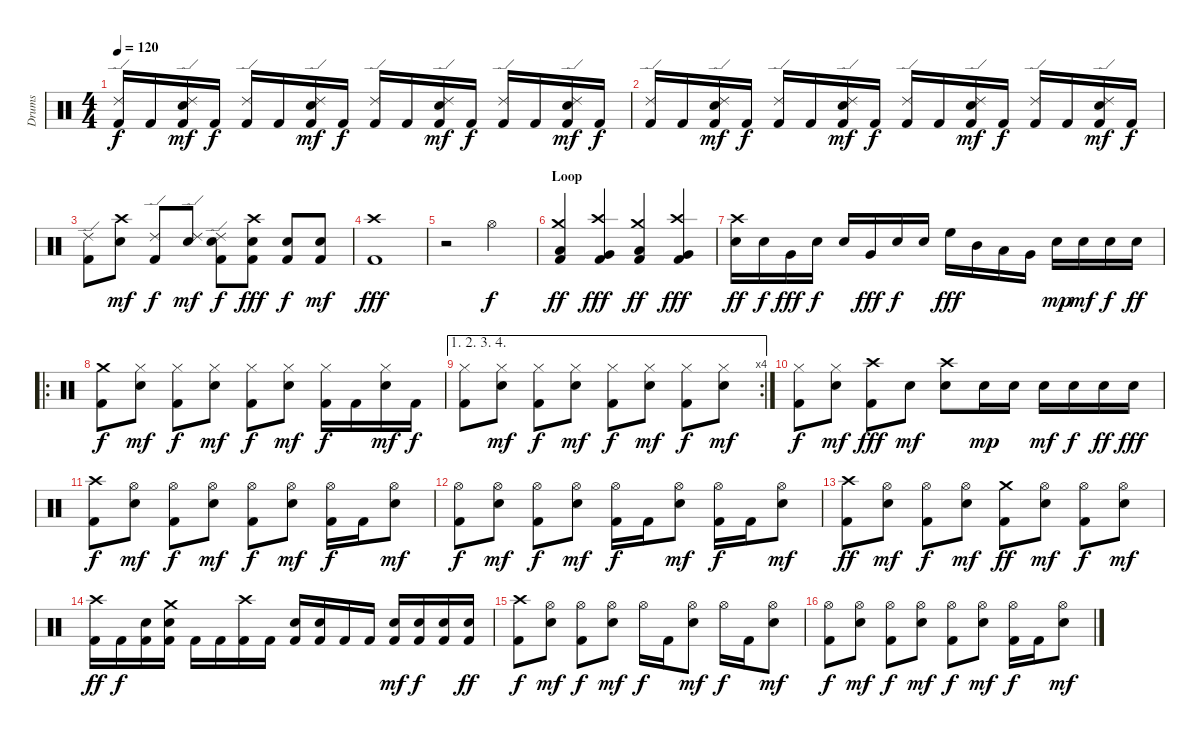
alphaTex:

\track ("Drums" "Drums") {instrument percussion}
\staff {score}
\articulation defaults
\ts (4 4)
\tempo 120
\clef neutral
\ks c
("Ride (edge) 2" "Kick (hit) 2").16{dy f} "Kick (hit) 2".16 ("Ride (edge) 2" "Snare (hit) 2" "Kick (hit) 2").16{dy mf} "Kick (hit) 2".16{dy f} ("Ride (edge) 2" "Kick (hit) 2").16 "Kick (hit) 2".16 ("Ride (edge) 2" "Snare (hit) 2" "Kick (hit) 2").16{dy mf} "Kick (hit) 2".16{dy f} ("Ride (edge) 2" "Kick (hit) 2").16 "Kick (hit) 2".16 ("Ride (edge) 2" "Snare (hit) 2" "Kick (hit) 2").16{dy mf} "Kick (hit) 2".16{dy f} ("Ride (edge) 2" "Kick (hit) 2").16 "Kick (hit) 2".16 ("Ride (edge) 2" "Snare (hit) 2" "Kick (hit) 2").16{dy mf} "Kick (hit) 2".16{dy f} |
("Ride (edge) 2" "Kick (hit) 2").16 "Kick (hit) 2".16 ("Ride (edge) 2" "Snare (hit) 2" "Kick (hit) 2").16{dy mf} "Kick (hit) 2".16{dy f} ("Ride (edge) 2" "Kick (hit) 2").16 "Kick (hit) 2".16 ("Ride (edge) 2" "Snare (hit) 2" "Kick (hit) 2").16{dy mf} "Kick (hit) 2".16{dy f} ("Ride (edge) 2" "Kick (hit) 2").16 "Kick (hit) 2".16 ("Ride (edge) 2" "Snare (hit) 2" "Kick (hit) 2").16{dy mf} "Kick (hit) 2".16{dy f} ("Ride (edge) 2" "Kick (hit) 2").16 "Kick (hit) 2".16 ("Ride (edge) 2" "Snare (hit) 2" "Kick (hit) 2").16{dy mf} "Kick (hit) 2".16{dy f} |
("Ride (edge) 2" "Kick (hit) 2").8 ("Crash high (hit)" "Snare (hit) 2").8{dy mf} ("Ride (edge) 2" "Kick (hit) 2").8{dy f} ("Ride (edge) 2" "Snare (hit) 2").8{dy mf} ("Ride (edge) 2" "Snare (hit) 2" "Kick (hit) 2").8{dy f} ("Crash high (hit)" "Snare (hit) 2" "Kick (hit) 2").8{dy fff} ("Snare (hit) 2" "Kick (hit) 2").8{dy f} ("Snare (hit) 2" "Kick (hit) 2").8{dy mf} |
("Crash high (hit)" "Kick (hit) 2").1{dy fff} |
r.2 "Hi-Hat (open)".2{dy f} |
\section ("" "Loop")
("Crash medium (hit)" "Low Floor Tom (hit)" "Kick (hit) 2").4{dy ff balance 4} ("Crash high (hit)" "Very Low Tom (hit)" "Kick (hit) 2").4{dy fff balance 12} ("Crash medium (hit)" "Low Floor Tom (hit)" "Kick (hit) 2").4{dy ff balance 4} ("Crash high (hit)" "Very Low Tom (hit)" "Kick (hit) 2").4{dy fff balance 12} |
("Crash high (hit)" "Snare (hit) 2").16{dy ff balance 8} "Snare (hit) 2".16{dy f} "Very Low Tom (hit)".16{dy fff} "Snare (hit) 2".16{dy f} "Snare (hit) 2".16 "Very Low Tom (hit)".16{dy fff} "Snare (hit) 2".16{dy f} "Snare (hit) 2".16 "High Floor Tom (hit)".16{dy fff} "Mid Tom (hit)".16 "Low Tom (hit)".16 "Very Low Tom (hit)".16 "Snare (hit) 2".16{dy mp} "Snare (hit) 2".16{dy mf} "Snare (hit) 2".16{dy f} "Snare (hit) 2".16{dy ff} |
\ro
("Crash medium (hit)" "Kick (hit) 2").8{dy f} ("Hi-Hat (closed)" "Snare (hit) 2").8{dy mf} ("Hi-Hat (closed)" "Kick (hit) 2").8{dy f} ("Hi-Hat (closed)" "Snare (hit) 2").8{dy mf} ("Hi-Hat (closed)" "Kick (hit) 2").8{dy f} ("Hi-Hat (closed)" "Snare (hit) 2").8{dy mf} ("Hi-Hat (closed)" "Kick (hit) 2").16{dy f} "Kick (hit) 2".16 ("Hi-Hat (closed)" "Snare (hit) 2").16{dy mf} "Kick (hit) 2".16{dy f} |
\ae (1 2 3 4)
\rc 4
("Hi-Hat (closed)" "Kick (hit) 2").8 ("Hi-Hat (closed)" "Snare (hit) 2").8{dy mf} ("Hi-Hat (closed)" "Kick (hit) 2").8{dy f} ("Hi-Hat (closed)" "Snare (hit) 2").8{dy mf} ("Hi-Hat (closed)" "Kick (hit) 2").8{dy f} ("Hi-Hat (closed)" "Snare (hit) 2").8{dy mf} ("Hi-Hat (closed)" "Kick (hit) 2").8{dy f} ("Hi-Hat (closed)" "Snare (hit) 2").8{dy mf} |
("Hi-Hat (closed)" "Kick (hit) 2").8{dy f} ("Hi-Hat (closed)" "Snare (hit) 2").8{dy mf} ("Crash high (hit)" "Kick (hit) 2").8{dy fff} "Snare (hit) 2".8{dy mf} ("Crash high (hit)" "Snare (hit) 2").8 "Snare (hit) 2".16{dy mp} "Snare (hit) 2".16 "Snare (hit) 2".16{dy mf} "Snare (hit) 2".16{dy f} "Snare (hit) 2".16{dy ff} "Snare (hit) 2".16{dy fff} |
("Crash high (hit)" "Kick (hit) 2").8{dy f} ("Hi-Hat (open)" "Snare (hit) 2").8{dy mf} ("Hi-Hat (open)" "Kick (hit) 2").8{dy f} ("Hi-Hat (open)" "Snare (hit) 2").8{dy mf} ("Hi-Hat (open)" "Kick (hit) 2").8{dy f} ("Hi-Hat (open)" "Snare (hit) 2").8{dy mf} ("Hi-Hat (open)" "Kick (hit) 2").16{dy f} "Kick (hit) 2".16 ("Hi-Hat (open)" "Snare (hit) 2").8{dy mf} |
("Hi-Hat (open)" "Kick (hit) 2").8{dy f} ("Hi-Hat (open)" "Snare (hit) 2").8{dy mf} ("Hi-Hat (open)" "Kick (hit) 2").8{dy f} ("Hi-Hat (open)" "Snare (hit) 2").8{dy mf} ("Hi-Hat (open)" "Kick (hit) 2").16{dy f} "Kick (hit) 2".16 ("Hi-Hat (open)" "Snare (hit) 2").8{dy mf} ("Hi-Hat (open)" "Kick (hit) 2").16{dy f} "Kick (hit) 2".16 ("Hi-Hat (open)" "Snare (hit) 2").8{dy mf} |
("Crash high (hit)" "Kick (hit) 2").8{dy ff} ("Hi-Hat (open)" "Snare (hit) 2").8{dy mf} ("Hi-Hat (open)" "Kick (hit) 2").8{dy f} ("Hi-Hat (open)" "Snare (hit) 2").8{dy mf} ("Crash medium (hit)" "Kick (hit) 2").8{dy ff} ("Hi-Hat (open)" "Snare (hit) 2").8{dy mf} ("Hi-Hat (open)" "Kick (hit) 2").8{dy f} ("Hi-Hat (open)" "Snare (hit) 2").8{dy mf} |
("Crash high (hit)" "Kick (hit) 2").16{dy ff} "Kick (hit) 2".16{dy f} ("Snare (hit) 2" "Kick (hit) 2").16 ("Crash medium (hit)" "Snare (hit) 2" "Kick (hit) 2").16 "Kick (hit) 2".16 "Kick (hit) 2".16 ("Crash high (hit)" "Kick (hit) 2").16 "Kick (hit) 2".16 ("Snare (hit) 2" "Kick (hit) 2").16 ("Snare (hit) 2" "Kick (hit) 2").16 "Kick (hit) 2".16 "Kick (hit) 2".16 ("Snare (hit) 2" "Kick (hit) 2").16{dy mf} ("Snare (hit) 2" "Kick (hit) 2").16{dy f} ("Snare (hit) 2" "Kick (hit) 2").16 ("Snare (hit) 2" "Kick (hit) 2").16{dy ff} |
("Crash high (hit)" "Kick (hit) 2").8{dy f} ("Hi-Hat (open)" "Snare (hit) 2").8{dy mf} ("Hi-Hat (open)" "Kick (hit) 2").8{dy f} ("Hi-Hat (open)" "Snare (hit) 2").8{dy mf} "Hi-Hat (open)".16{dy f} "Kick (hit) 2".16 ("Hi-Hat (open)" "Snare (hit) 2").8{dy mf} "Hi-Hat (open)".16{dy f} "Kick (hit) 2".16 ("Hi-Hat (open)" "Snare (hit) 2").8{dy mf} |
("Hi-Hat (open)" "Kick (hit) 2").8{dy f} ("Hi-Hat (open)" "Snare (hit) 2").8{dy mf} ("Hi-Hat (open)" "Kick (hit) 2").8{dy f} ("Hi-Hat (open)" "Snare (hit) 2").8{dy mf} ("Hi-Hat (open)" "Kick (hit) 2").8{dy f} ("Hi-Hat (open)" "Snare (hit) 2").8{dy mf} ("Hi-Hat (open)" "Kick (hit) 2").16{dy f} "Kick (hit) 2".16 ("Hi-Hat (open)" "Snare (hit) 2").8{dy mf}
